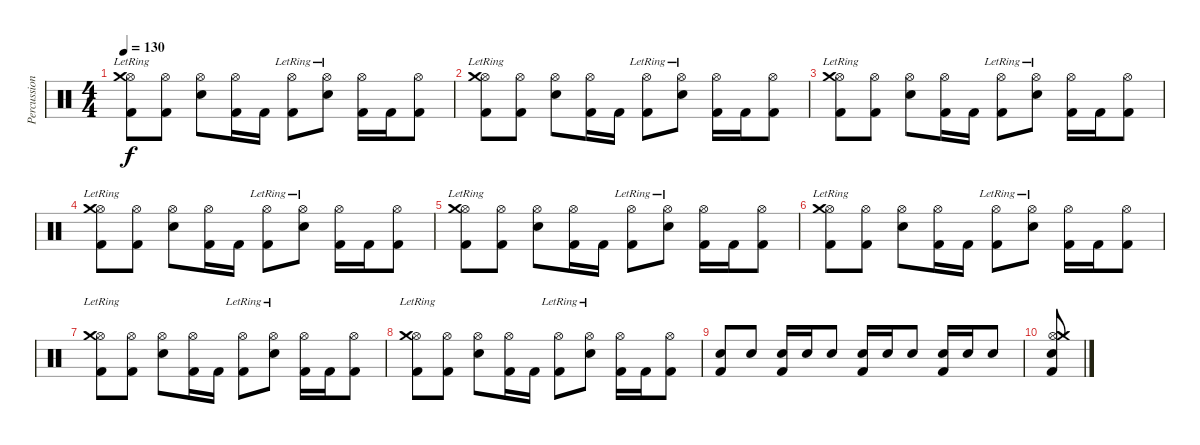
\track ("Percussions" "Percussion") {instrument percussion}
\staff {score}
\articulation defaults
\ts (4 4)
\tempo 130
\clef neutral
\ks c
("Kick (hit) 2" "Hi-Hat (open)" "Crash medium (hit)"{lr}).8{dy f} ("Kick (hit) 2" "Hi-Hat (open)").8 ("Snare (hit) 2" "Hi-Hat (open)").8 ("Kick (hit) 2" "Hi-Hat (open)").16 "Kick (hit) 2".16 ("Kick (hit) 2" "Hi-Hat (open)"{lr}).8 ("Snare (hit) 2" "Hi-Hat (open)"{lr}).8 ("Kick (hit) 2" "Hi-Hat (open)").16 "Kick (hit) 2".16 ("Kick (hit) 2" "Hi-Hat (open)").8 |
("Kick (hit) 2" "Hi-Hat (open)" "Crash medium (hit)"{lr}).8 ("Kick (hit) 2" "Hi-Hat (open)").8 ("Snare (hit) 2" "Hi-Hat (open)").8 ("Kick (hit) 2" "Hi-Hat (open)").16 "Kick (hit) 2".16 ("Kick (hit) 2" "Hi-Hat (open)"{lr}).8 ("Snare (hit) 2" "Hi-Hat (open)"{lr}).8 ("Kick (hit) 2" "Hi-Hat (open)").16 "Kick (hit) 2".16 ("Kick (hit) 2" "Hi-Hat (open)").8 |
("Kick (hit) 2" "Hi-Hat (open)" "Crash medium (hit)"{lr}).8 ("Kick (hit) 2" "Hi-Hat (open)").8 ("Snare (hit) 2" "Hi-Hat (open)").8 ("Kick (hit) 2" "Hi-Hat (open)").16 "Kick (hit) 2".16 ("Kick (hit) 2" "Hi-Hat (open)"{lr}).8 ("Snare (hit) 2" "Hi-Hat (open)"{lr}).8 ("Kick (hit) 2" "Hi-Hat (open)").16 "Kick (hit) 2".16 ("Kick (hit) 2" "Hi-Hat (open)").8 |
("Kick (hit) 2" "Hi-Hat (open)" "Crash medium (hit)"{lr}).8 ("Kick (hit) 2" "Hi-Hat (open)").8 ("Snare (hit) 2" "Hi-Hat (open)").8 ("Kick (hit) 2" "Hi-Hat (open)").16 "Kick (hit) 2".16 ("Kick (hit) 2" "Hi-Hat (open)"{lr}).8 ("Snare (hit) 2" "Hi-Hat (open)"{lr}).8 ("Kick (hit) 2" "Hi-Hat (open)").16 "Kick (hit) 2".16 ("Kick (hit) 2" "Hi-Hat (open)").8 |
("Kick (hit) 2" "Hi-Hat (open)" "Crash medium (hit)"{lr}).8 ("Kick (hit) 2" "Hi-Hat (open)").8 ("Snare (hit) 2" "Hi-Hat (open)").8 ("Kick (hit) 2" "Hi-Hat (open)").16 "Kick (hit) 2".16 ("Kick (hit) 2" "Hi-Hat (open)"{lr}).8 ("Snare (hit) 2" "Hi-Hat (open)"{lr}).8 ("Kick (hit) 2" "Hi-Hat (open)").16 "Kick (hit) 2".16 ("Kick (hit) 2" "Hi-Hat (open)").8 |
("Kick (hit) 2" "Hi-Hat (open)" "Crash medium (hit)"{lr}).8 ("Kick (hit) 2" "Hi-Hat (open)").8 ("Snare (hit) 2" "Hi-Hat (open)").8 ("Kick (hit) 2" "Hi-Hat (open)").16 "Kick (hit) 2".16 ("Kick (hit) 2" "Hi-Hat (open)"{lr}).8 ("Snare (hit) 2" "Hi-Hat (open)"{lr}).8 ("Kick (hit) 2" "Hi-Hat (open)").16 "Kick (hit) 2".16 ("Kick (hit) 2" "Hi-Hat (open)").8 |
("Kick (hit) 2" "Hi-Hat (open)" "Crash medium (hit)"{lr}).8 ("Kick (hit) 2" "Hi-Hat (open)").8 ("Snare (hit) 2" "Hi-Hat (open)").8 ("Kick (hit) 2" "Hi-Hat (open)").16 "Kick (hit) 2".16 ("Kick (hit) 2" "Hi-Hat (open)"{lr}).8 ("Snare (hit) 2" "Hi-Hat (open)"{lr}).8 ("Kick (hit) 2" "Hi-Hat (open)").16 "Kick (hit) 2".16 ("Kick (hit) 2" "Hi-Hat (open)").8 |
("Kick (hit) 2" "Hi-Hat (open)" "Crash medium (hit)"{lr}).8 ("Kick (hit) 2" "Hi-Hat (open)").8 ("Snare (hit) 2" "Hi-Hat (open)").8 ("Kick (hit) 2" "Hi-Hat (open)").16 "Kick (hit) 2".16 ("Kick (hit) 2" "Hi-Hat (open)"{lr}).8 ("Snare (hit) 2" "Hi-Hat (open)"{lr}).8 ("Kick (hit) 2" "Hi-Hat (open)").16 "Kick (hit) 2".16 ("Kick (hit) 2" "Hi-Hat (open)").8 |
("Kick (hit) 2" "Snare (hit) 2").8 "Snare (hit) 2".8 ("Kick (hit) 2" "Snare (hit) 2").16 "Snare (hit) 2".16 "Snare (hit) 2".8 ("Kick (hit) 2" "Snare (hit) 2").16 "Snare (hit) 2".16 "Snare (hit) 2".8 ("Kick (hit) 2" "Snare (hit) 2").16 "Snare (hit) 2".16 "Snare (hit) 2".8 |
("Kick (hit) 2" "Snare (hit) 2" "Hi-Hat (open)" "Crash medium (hit)").8
